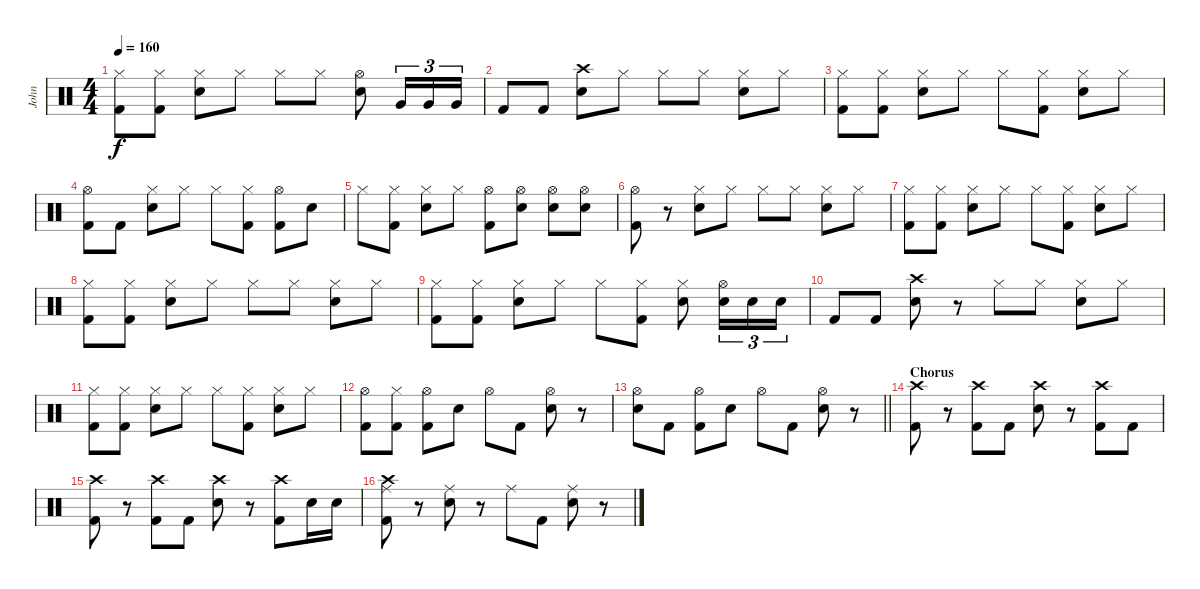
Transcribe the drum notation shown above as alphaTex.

\track ("John" "John") {instrument percussion}
\staff {score}
\articulation defaults
\ts (4 4)
\tempo 160
\clef neutral
\ks c
("Hi-Hat (closed)" "Kick (hit) 2").8{dy f} ("Hi-Hat (closed)" "Kick (hit) 2").8 ("Hi-Hat (closed)" "Snare (hit) 2").8 "Hi-Hat (closed)".8 "Hi-Hat (closed)".8 "Hi-Hat (closed)".8 ("Hi-Hat (open)" "Snare (hit) 2").8 "Very Low Tom (hit)".16{tu (3 2)} "Very Low Tom (hit)".16{tu (3 2)} "Very Low Tom (hit)".16{tu (3 2)} |
"Kick (hit) 2".8 "Kick (hit) 2".8 ("Crash high (hit)" "Snare (hit) 2").8 "Hi-Hat (closed)".8 "Hi-Hat (closed)".8 "Hi-Hat (closed)".8 ("Hi-Hat (closed)" "Snare (hit) 2").8 "Hi-Hat (closed)".8 |
("Hi-Hat (closed)" "Kick (hit) 2").8 ("Hi-Hat (closed)" "Kick (hit) 2").8 ("Hi-Hat (closed)" "Snare (hit) 2").8 "Hi-Hat (closed)".8 "Hi-Hat (closed)".8 ("Hi-Hat (closed)" "Kick (hit) 2").8 ("Hi-Hat (closed)" "Snare (hit) 2").8 "Hi-Hat (closed)".8 |
("Hi-Hat (open)" "Kick (hit) 2").8 "Kick (hit) 2".8 ("Hi-Hat (closed)" "Snare (hit) 2").8 "Hi-Hat (closed)".8 "Hi-Hat (closed)".8 ("Hi-Hat (closed)" "Kick (hit) 2").8 ("Hi-Hat (open)" "Kick (hit) 2").8 "Snare (hit) 2".8 |
"Hi-Hat (closed)".8 ("Hi-Hat (closed)" "Kick (hit) 2").8 ("Hi-Hat (closed)" "Snare (hit) 2").8 "Hi-Hat (closed)".8 ("Hi-Hat (open)" "Kick (hit) 2").8 ("Hi-Hat (open)" "Snare (hit) 2").8 ("Hi-Hat (open)" "Snare (hit) 2").8 ("Hi-Hat (open)" "Snare (hit) 2").8 |
("Hi-Hat (open)" "Kick (hit) 2").8 r.8 ("Hi-Hat (closed)" "Snare (hit) 2").8 "Hi-Hat (closed)".8 "Hi-Hat (closed)".8 "Hi-Hat (closed)".8 ("Hi-Hat (closed)" "Snare (hit) 2").8 "Hi-Hat (closed)".8 |
("Hi-Hat (closed)" "Kick (hit) 2").8 ("Hi-Hat (closed)" "Kick (hit) 2").8 ("Hi-Hat (closed)" "Snare (hit) 2").8 "Hi-Hat (closed)".8 "Hi-Hat (closed)".8 ("Hi-Hat (closed)" "Kick (hit) 2").8 ("Hi-Hat (closed)" "Snare (hit) 2").8 "Hi-Hat (closed)".8 |
("Hi-Hat (closed)" "Kick (hit) 2").8 ("Hi-Hat (closed)" "Kick (hit) 2").8 ("Hi-Hat (closed)" "Snare (hit) 2").8 "Hi-Hat (closed)".8 "Hi-Hat (closed)".8 "Hi-Hat (closed)".8 ("Hi-Hat (closed)" "Snare (hit) 2").8 "Hi-Hat (closed)".8 |
("Hi-Hat (closed)" "Kick (hit) 2").8 ("Hi-Hat (closed)" "Kick (hit) 2").8 ("Hi-Hat (closed)" "Snare (hit) 2").8 "Hi-Hat (closed)".8 "Hi-Hat (closed)".8 ("Hi-Hat (closed)" "Kick (hit) 2").8 ("Hi-Hat (closed)" "Snare (hit) 2").8 ("Hi-Hat (open)" "Snare (hit) 2").16{tu (3 2)} "Snare (hit) 2".16{tu (3 2)} "Snare (hit) 2".16{tu (3 2)} |
"Kick (hit) 2".8 "Kick (hit) 2".8 ("Crash high (hit)" "Snare (hit) 2").8 r.8 "Hi-Hat (closed)".8 "Hi-Hat (closed)".8 ("Hi-Hat (closed)" "Snare (hit) 2").8 "Hi-Hat (closed)".8 |
("Hi-Hat (closed)" "Kick (hit) 2").8 ("Hi-Hat (closed)" "Kick (hit) 2").8 ("Hi-Hat (closed)" "Snare (hit) 2").8 "Hi-Hat (closed)".8 "Hi-Hat (closed)".8 ("Hi-Hat (closed)" "Kick (hit) 2").8 ("Hi-Hat (closed)" "Snare (hit) 2").8 "Hi-Hat (closed)".8 |
("Hi-Hat (open)" "Kick (hit) 2").8 ("Hi-Hat (closed)" "Kick (hit) 2").8 ("Hi-Hat (open)" "Kick (hit) 2").8 "Snare (hit) 2".8 "Hi-Hat (open)".8 "Kick (hit) 2".8 ("Hi-Hat (open)" "Snare (hit) 2").8 r.8 |
\barLineRight lightlight
("Hi-Hat (open)" "Snare (hit) 2").8 "Kick (hit) 2".8 ("Hi-Hat (open)" "Kick (hit) 2").8 "Snare (hit) 2".8 "Hi-Hat (open)".8 "Kick (hit) 2".8 ("Hi-Hat (open)" "Snare (hit) 2").8 r.8 |
\section ("" "Chorus")
("Crash high (hit)" "Kick (hit) 2").8 r.8 ("Crash high (hit)" "Kick (hit) 2").8 "Kick (hit) 2".8 ("Crash high (hit)" "Snare (hit) 2").8 r.8 ("Crash high (hit)" "Kick (hit) 2").8 "Kick (hit) 2".8 |
("Crash high (hit)" "Kick (hit) 2").8 r.8 ("Crash high (hit)" "Kick (hit) 2").8 "Kick (hit) 2".8 ("Crash high (hit)" "Snare (hit) 2").8 r.8 ("Crash high (hit)" "Kick (hit) 2").8 "Snare (hit) 2".16 "Snare (hit) 2".16 |
("Ride (middle)" "Crash high (hit)" "Kick (hit) 2").8 r.8 ("Ride (middle)" "Snare (hit) 2").8 r.8 "Ride (middle)".8 "Kick (hit) 2".8 ("Ride (middle)" "Snare (hit) 2").8 r.8
